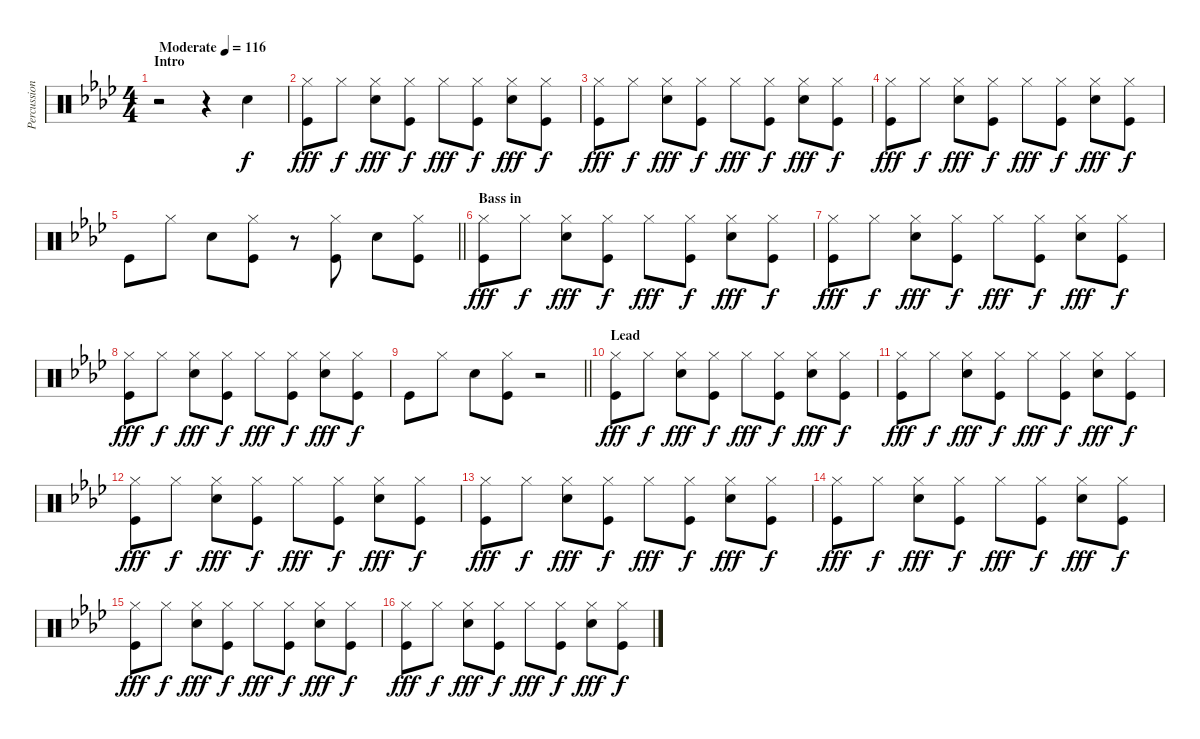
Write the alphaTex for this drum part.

\track ("Percussion" "Percussion") {instrument percussion}
\staff {score}
\articulation defaults
\ts (4 4)
\section ("" "Intro")
\tempo (116 "Moderate")
\clef neutral
\ks fminor
r.2{dy f} r.4 "Electric Snare (hit)".4 |
("Hi-Hat (closed)" "Kick (hit)").8{dy fff} "Hi-Hat (closed)".8{dy f} ("Hi-Hat (closed)" "Electric Snare (hit)").8{dy fff} ("Hi-Hat (closed)" "Kick (hit)").8{dy f} "Hi-Hat (closed)".8{dy fff} ("Hi-Hat (closed)" "Kick (hit)").8{dy f} ("Hi-Hat (closed)" "Electric Snare (hit)").8{dy fff} ("Hi-Hat (closed)" "Kick (hit)").8{dy f} |
("Hi-Hat (closed)" "Kick (hit)").8{dy fff} "Hi-Hat (closed)".8{dy f} ("Hi-Hat (closed)" "Electric Snare (hit)").8{dy fff} ("Hi-Hat (closed)" "Kick (hit)").8{dy f} "Hi-Hat (closed)".8{dy fff} ("Hi-Hat (closed)" "Kick (hit)").8{dy f} ("Hi-Hat (closed)" "Electric Snare (hit)").8{dy fff} ("Hi-Hat (closed)" "Kick (hit)").8{dy f} |
("Hi-Hat (closed)" "Kick (hit)").8{dy fff} "Hi-Hat (closed)".8{dy f} ("Hi-Hat (closed)" "Electric Snare (hit)").8{dy fff} ("Hi-Hat (closed)" "Kick (hit)").8{dy f} "Hi-Hat (closed)".8{dy fff} ("Hi-Hat (closed)" "Kick (hit)").8{dy f} ("Hi-Hat (closed)" "Electric Snare (hit)").8{dy fff} ("Hi-Hat (closed)" "Kick (hit)").8{dy f} |
\barLineRight lightlight "Kick (hit)".8 "Hi-Hat (closed)".8 "Electric Snare (hit)".8
("Hi-Hat (closed)" "Kick (hit)").8 r.8 ("Hi-Hat (closed)" "Kick (hit)").8 "Electric Snare (hit)".8 ("Hi-Hat (closed)" "Kick (hit)").8 |
\section ("" "Bass in")
("Hi-Hat (closed)" "Kick (hit)").8{dy fff} "Hi-Hat (closed)".8{dy f} ("Hi-Hat (closed)" "Electric Snare (hit)").8{dy fff} ("Hi-Hat (closed)" "Kick (hit)").8{dy f} "Hi-Hat (closed)".8{dy fff} ("Hi-Hat (closed)" "Kick (hit)").8{dy f} ("Hi-Hat (closed)" "Electric Snare (hit)").8{dy fff} ("Hi-Hat (closed)" "Kick (hit)").8{dy f} |
("Hi-Hat (closed)" "Kick (hit)").8{dy fff} "Hi-Hat (closed)".8{dy f} ("Hi-Hat (closed)" "Electric Snare (hit)").8{dy fff} ("Hi-Hat (closed)" "Kick (hit)").8{dy f} "Hi-Hat (closed)".8{dy fff} ("Hi-Hat (closed)" "Kick (hit)").8{dy f} ("Hi-Hat (closed)" "Electric Snare (hit)").8{dy fff} ("Hi-Hat (closed)" "Kick (hit)").8{dy f} |
("Hi-Hat (closed)" "Kick (hit)").8{dy fff} "Hi-Hat (closed)".8{dy f} ("Hi-Hat (closed)" "Electric Snare (hit)").8{dy fff} ("Hi-Hat (closed)" "Kick (hit)").8{dy f} "Hi-Hat (closed)".8{dy fff} ("Hi-Hat (closed)" "Kick (hit)").8{dy f} ("Hi-Hat (closed)" "Electric Snare (hit)").8{dy fff} ("Hi-Hat (closed)" "Kick (hit)").8{dy f} |
\barLineRight lightlight "Kick (hit)".8 "Hi-Hat (closed)".8 "Electric Snare (hit)".8
("Hi-Hat (closed)" "Kick (hit)").8 r.2 |
\section ("" "Lead")
("Hi-Hat (closed)" "Kick (hit)").8{dy fff} "Hi-Hat (closed)".8{dy f} ("Hi-Hat (closed)" "Electric Snare (hit)").8{dy fff} ("Hi-Hat (closed)" "Kick (hit)").8{dy f} "Hi-Hat (closed)".8{dy fff} ("Hi-Hat (closed)" "Kick (hit)").8{dy f} ("Hi-Hat (closed)" "Electric Snare (hit)").8{dy fff} ("Hi-Hat (closed)" "Kick (hit)").8{dy f} |
("Hi-Hat (closed)" "Kick (hit)").8{dy fff} "Hi-Hat (closed)".8{dy f} ("Hi-Hat (closed)" "Electric Snare (hit)").8{dy fff} ("Hi-Hat (closed)" "Kick (hit)").8{dy f} "Hi-Hat (closed)".8{dy fff} ("Hi-Hat (closed)" "Kick (hit)").8{dy f} ("Hi-Hat (closed)" "Electric Snare (hit)").8{dy fff} ("Hi-Hat (closed)" "Kick (hit)").8{dy f} |
("Hi-Hat (closed)" "Kick (hit)").8{dy fff} "Hi-Hat (closed)".8{dy f} ("Hi-Hat (closed)" "Electric Snare (hit)").8{dy fff} ("Hi-Hat (closed)" "Kick (hit)").8{dy f} "Hi-Hat (closed)".8{dy fff} ("Hi-Hat (closed)" "Kick (hit)").8{dy f} ("Hi-Hat (closed)" "Electric Snare (hit)").8{dy fff} ("Hi-Hat (closed)" "Kick (hit)").8{dy f} |
("Hi-Hat (closed)" "Kick (hit)").8{dy fff} "Hi-Hat (closed)".8{dy f} ("Hi-Hat (closed)" "Electric Snare (hit)").8{dy fff} ("Hi-Hat (closed)" "Kick (hit)").8{dy f} "Hi-Hat (closed)".8{dy fff} ("Hi-Hat (closed)" "Kick (hit)").8{dy f} ("Hi-Hat (closed)" "Electric Snare (hit)").8{dy fff} ("Hi-Hat (closed)" "Kick (hit)").8{dy f} |
("Hi-Hat (closed)" "Kick (hit)").8{dy fff} "Hi-Hat (closed)".8{dy f} ("Hi-Hat (closed)" "Electric Snare (hit)").8{dy fff} ("Hi-Hat (closed)" "Kick (hit)").8{dy f} "Hi-Hat (closed)".8{dy fff} ("Hi-Hat (closed)" "Kick (hit)").8{dy f} ("Hi-Hat (closed)" "Electric Snare (hit)").8{dy fff} ("Hi-Hat (closed)" "Kick (hit)").8{dy f} |
("Hi-Hat (closed)" "Kick (hit)").8{dy fff} "Hi-Hat (closed)".8{dy f} ("Hi-Hat (closed)" "Electric Snare (hit)").8{dy fff} ("Hi-Hat (closed)" "Kick (hit)").8{dy f} "Hi-Hat (closed)".8{dy fff} ("Hi-Hat (closed)" "Kick (hit)").8{dy f} ("Hi-Hat (closed)" "Electric Snare (hit)").8{dy fff} ("Hi-Hat (closed)" "Kick (hit)").8{dy f} |
("Hi-Hat (closed)" "Kick (hit)").8{dy fff} "Hi-Hat (closed)".8{dy f} ("Hi-Hat (closed)" "Electric Snare (hit)").8{dy fff} ("Hi-Hat (closed)" "Kick (hit)").8{dy f} "Hi-Hat (closed)".8{dy fff} ("Hi-Hat (closed)" "Kick (hit)").8{dy f} ("Hi-Hat (closed)" "Electric Snare (hit)").8{dy fff} ("Hi-Hat (closed)" "Kick (hit)").8{dy f}
